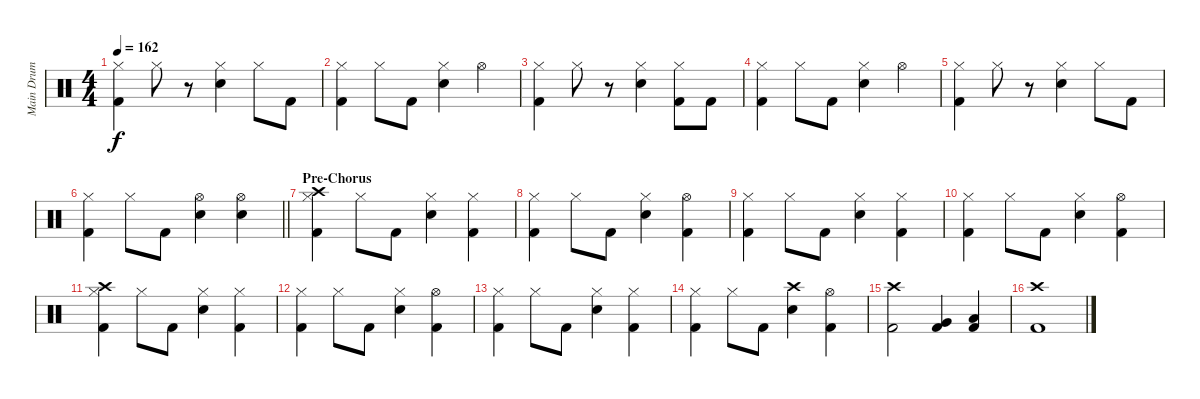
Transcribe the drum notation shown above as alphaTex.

\track ("Main Drum Track" "Main Drum ") {instrument percussion}
\staff {score}
\articulation defaults
\ts (4 4)
\tempo 162
\clef neutral
\ks c
("Hi-Hat (closed)" "Kick (hit) 2").4{dy f} "Hi-Hat (closed)".8 r.8 ("Hi-Hat (closed)" "Electric Snare (hit)").4 "Hi-Hat (closed)".8 "Kick (hit) 2".8 |
("Hi-Hat (closed)" "Kick (hit) 2").4 "Hi-Hat (closed)".8 "Kick (hit) 2".8 ("Hi-Hat (closed)" "Electric Snare (hit)").4 "Hi-Hat (open)".4 |
("Hi-Hat (closed)" "Kick (hit) 2").4 "Hi-Hat (closed)".8 r.8 ("Hi-Hat (closed)" "Electric Snare (hit)").4 ("Hi-Hat (closed)" "Kick (hit) 2").8 "Kick (hit) 2".8 |
("Hi-Hat (closed)" "Kick (hit) 2").4 "Hi-Hat (closed)".8 "Kick (hit) 2".8 ("Hi-Hat (closed)" "Electric Snare (hit)").4 "Hi-Hat (open)".4 |
("Hi-Hat (closed)" "Kick (hit) 2").4 "Hi-Hat (closed)".8 r.8 ("Hi-Hat (closed)" "Electric Snare (hit)").4 "Hi-Hat (closed)".8 "Kick (hit) 2".8 |
\barLineRight lightlight
("Hi-Hat (closed)" "Kick (hit) 2").4 "Hi-Hat (closed)".8 "Kick (hit) 2".8 ("Hi-Hat (open)" "Electric Snare (hit)").4 ("Hi-Hat (open)" "Electric Snare (hit)").4 |
\section ("" "Pre-Chorus")
("Crash high (hit)" "Hi-Hat (closed)" "Kick (hit) 2").4 "Hi-Hat (closed)".8 "Kick (hit) 2".8 ("Hi-Hat (closed)" "Electric Snare (hit)").4 ("Hi-Hat (closed)" "Kick (hit) 2").4 |
("Hi-Hat (closed)" "Kick (hit) 2").4 "Hi-Hat (closed)".8 "Kick (hit) 2".8 ("Hi-Hat (closed)" "Electric Snare (hit)").4 ("Hi-Hat (open)" "Kick (hit) 2").4 |
("Hi-Hat (closed)" "Kick (hit) 2").4 "Hi-Hat (closed)".8 "Kick (hit) 2".8 ("Hi-Hat (closed)" "Electric Snare (hit)").4 ("Hi-Hat (closed)" "Kick (hit) 2").4 |
("Hi-Hat (closed)" "Kick (hit) 2").4 "Hi-Hat (closed)".8 "Kick (hit) 2".8 ("Hi-Hat (closed)" "Electric Snare (hit)").4 ("Hi-Hat (open)" "Kick (hit) 2").4 |
("Crash high (hit)" "Hi-Hat (closed)" "Kick (hit) 2").4 "Hi-Hat (closed)".8 "Kick (hit) 2".8 ("Hi-Hat (closed)" "Electric Snare (hit)").4 ("Hi-Hat (closed)" "Kick (hit) 2").4 |
("Hi-Hat (closed)" "Kick (hit) 2").4 "Hi-Hat (closed)".8 "Kick (hit) 2".8 ("Hi-Hat (closed)" "Electric Snare (hit)").4 ("Hi-Hat (open)" "Kick (hit) 2").4 |
("Hi-Hat (closed)" "Kick (hit) 2").4 "Hi-Hat (closed)".8 "Kick (hit) 2".8 ("Hi-Hat (closed)" "Electric Snare (hit)").4 ("Hi-Hat (closed)" "Kick (hit) 2").4 |
("Hi-Hat (closed)" "Kick (hit) 2").4 "Hi-Hat (closed)".8 "Kick (hit) 2".8 ("Crash high (hit)" "Electric Snare (hit)").4 ("Hi-Hat (open)" "Kick (hit) 2").4 |
("Crash high (hit)" "Kick (hit) 2").2 ("Very Low Tom (hit)" "Kick (hit) 2").4 ("Low Floor Tom (hit)" "Kick (hit) 2").4 |
("Crash high (hit)" "Kick (hit) 2").1
